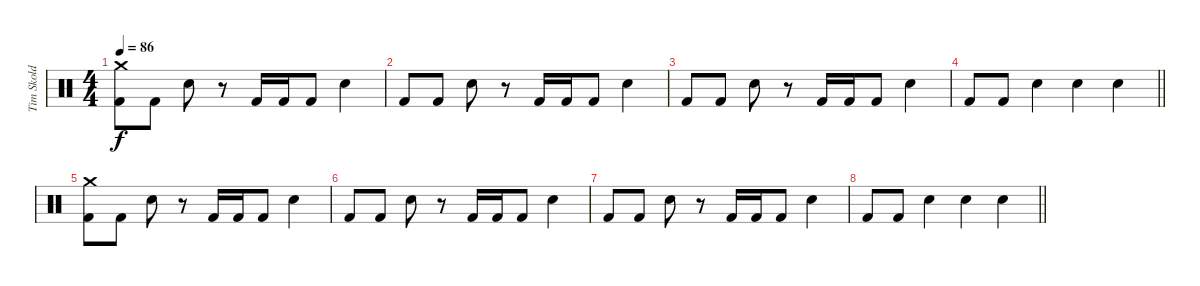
\track ("Tim Skold V" "Tim Skold ") {instrument percussion}
\staff {score}
\articulation defaults
\ts (4 4)
\tempo 86
\clef neutral
\ks c
("Crash medium (hit)" "Kick (hit) 2").8{dy f volume 6} "Kick (hit) 2".8 "Electric Snare (hit)".8 r.8 "Kick (hit) 2".16 "Kick (hit) 2".16 "Kick (hit) 2".8 "Electric Snare (hit)".4 |
"Kick (hit) 2".8 "Kick (hit) 2".8 "Electric Snare (hit)".8 r.8 "Kick (hit) 2".16 "Kick (hit) 2".16 "Kick (hit) 2".8 "Electric Snare (hit)".4 |
"Kick (hit) 2".8 "Kick (hit) 2".8 "Electric Snare (hit)".8 r.8 "Kick (hit) 2".16 "Kick (hit) 2".16 "Kick (hit) 2".8 "Electric Snare (hit)".4 |
\barLineRight lightlight "Kick (hit) 2".8 "Kick (hit) 2".8 "Electric Snare (hit)".4 "Electric Snare (hit)".4 "Electric Snare (hit)".4
|
("Crash medium (hit)" "Kick (hit) 2").8{volume 0} "Kick (hit) 2".8 "Electric Snare (hit)".8 r.8 "Kick (hit) 2".16 "Kick (hit) 2".16 "Kick (hit) 2".8 "Electric Snare (hit)".4 |
"Kick (hit) 2".8 "Kick (hit) 2".8 "Electric Snare (hit)".8 r.8 "Kick (hit) 2".16 "Kick (hit) 2".16 "Kick (hit) 2".8 "Electric Snare (hit)".4 |
"Kick (hit) 2".8 "Kick (hit) 2".8 "Electric Snare (hit)".8 r.8 "Kick (hit) 2".16 "Kick (hit) 2".16 "Kick (hit) 2".8 "Electric Snare (hit)".4 |
\barLineRight lightlight "Kick (hit) 2".8 "Kick (hit) 2".8 "Electric Snare (hit)".4 "Electric Snare (hit)".4 "Electric Snare (hit)".4
